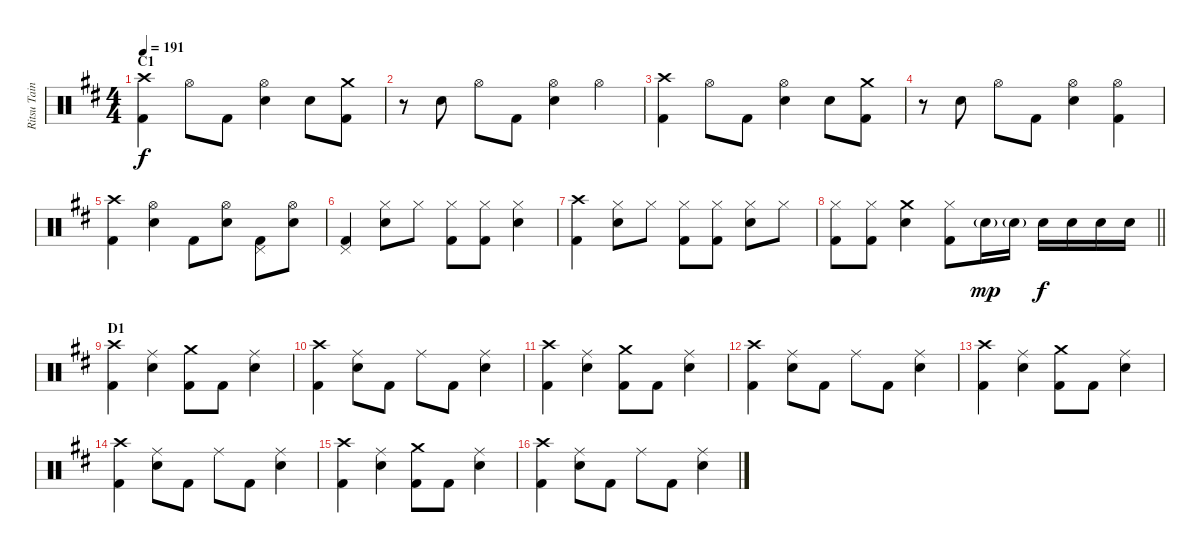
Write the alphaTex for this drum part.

\track ("Ritsu Tainaka" "Ritsu Tain") {instrument percussion}
\staff {score}
\articulation defaults
\ts (4 4)
\section ("" "C1")
\tempo 191
\clef neutral
\ks d
("Crash high (hit)" "Kick (hit) 2").4{dy f} "Hi-Hat (open)".8 "Kick (hit) 2".8 ("Hi-Hat (open)" "Electric Snare (hit)").4 "Electric Snare (hit)".8 ("Crash medium (hit)" "Kick (hit) 2").8 |
r.8 "Electric Snare (hit)".8 "Hi-Hat (open)".8 "Kick (hit) 2".8 ("Hi-Hat (open)" "Electric Snare (hit)").4 "Hi-Hat (open)".4 |
("Crash high (hit)" "Kick (hit) 2").4 "Hi-Hat (open)".8 "Kick (hit) 2".8 ("Hi-Hat (open)" "Electric Snare (hit)").4 "Electric Snare (hit)".8 ("Crash medium (hit)" "Kick (hit) 2").8 |
r.8 "Electric Snare (hit)".8 "Hi-Hat (open)".8 "Kick (hit) 2".8 ("Hi-Hat (open)" "Electric Snare (hit)").4 ("Hi-Hat (open)" "Kick (hit) 2").4 |
("Crash high (hit)" "Kick (hit) 2").4 ("Hi-Hat (open)" "Electric Snare (hit)").4 "Kick (hit) 2".8 ("Hi-Hat (open)" "Electric Snare (hit)").8 ("Pedal Hi-Hat (hit)" "Kick (hit) 2").8 ("Hi-Hat (open)" "Electric Snare (hit)").8 |
("Pedal Hi-Hat (hit)" "Kick (hit) 2").4 ("Hi-Hat (closed)" "Electric Snare (hit)").8 "Hi-Hat (closed)".8 ("Hi-Hat (closed)" "Kick (hit) 2").8 ("Hi-Hat (closed)" "Kick (hit) 2").8 ("Hi-Hat (closed)" "Electric Snare (hit)").4 |
("Crash high (hit)" "Kick (hit) 2").4 ("Hi-Hat (closed)" "Electric Snare (hit)").8 "Hi-Hat (closed)".8 ("Hi-Hat (closed)" "Kick (hit) 2").8 ("Hi-Hat (closed)" "Kick (hit) 2").8 ("Hi-Hat (closed)" "Electric Snare (hit)").8 "Hi-Hat (closed)".8 |
\barLineRight lightlight
("Hi-Hat (closed)" "Kick (hit) 2").8 ("Hi-Hat (closed)" "Kick (hit) 2").8 ("Crash medium (hit)" "Electric Snare (hit)").4 ("Hi-Hat (closed)" "Kick (hit) 2").8 "Electric Snare (hit)"{g}.16{dy mp} "Electric Snare (hit)"{g}.16 "Electric Snare (hit)".16{dy f} "Electric Snare (hit)".16 "Electric Snare (hit)".16 "Electric Snare (hit)".16 |
\section ("" "D1")
("Crash high (hit)" "Kick (hit) 2").4 ("Ride (middle)" "Electric Snare (hit)").4 ("Crash medium (hit)" "Kick (hit) 2").8 "Kick (hit) 2".8 ("Ride (middle)" "Electric Snare (hit)").4 |
("Crash high (hit)" "Kick (hit) 2").4 ("Ride (middle)" "Electric Snare (hit)").8 "Kick (hit) 2".8 "Ride (middle)".8 "Kick (hit) 2".8 ("Ride (middle)" "Electric Snare (hit)").4 |
("Crash high (hit)" "Kick (hit) 2").4 ("Ride (middle)" "Electric Snare (hit)").4 ("Crash medium (hit)" "Kick (hit) 2").8 "Kick (hit) 2".8 ("Ride (middle)" "Electric Snare (hit)").4 |
("Crash high (hit)" "Kick (hit) 2").4 ("Ride (middle)" "Electric Snare (hit)").8 "Kick (hit) 2".8 "Ride (middle)".8 "Kick (hit) 2".8 ("Ride (middle)" "Electric Snare (hit)").4 |
("Crash high (hit)" "Kick (hit) 2").4 ("Ride (middle)" "Electric Snare (hit)").4 ("Crash medium (hit)" "Kick (hit) 2").8 "Kick (hit) 2".8 ("Ride (middle)" "Electric Snare (hit)").4 |
("Crash high (hit)" "Kick (hit) 2").4 ("Ride (middle)" "Electric Snare (hit)").8 "Kick (hit) 2".8 "Ride (middle)".8 "Kick (hit) 2".8 ("Ride (middle)" "Electric Snare (hit)").4 |
("Crash high (hit)" "Kick (hit) 2").4 ("Ride (middle)" "Electric Snare (hit)").4 ("Crash medium (hit)" "Kick (hit) 2").8 "Kick (hit) 2".8 ("Ride (middle)" "Electric Snare (hit)").4 |
("Crash high (hit)" "Kick (hit) 2").4 ("Ride (middle)" "Electric Snare (hit)").8 "Kick (hit) 2".8 "Ride (middle)".8 "Kick (hit) 2".8 ("Ride (middle)" "Electric Snare (hit)").4
